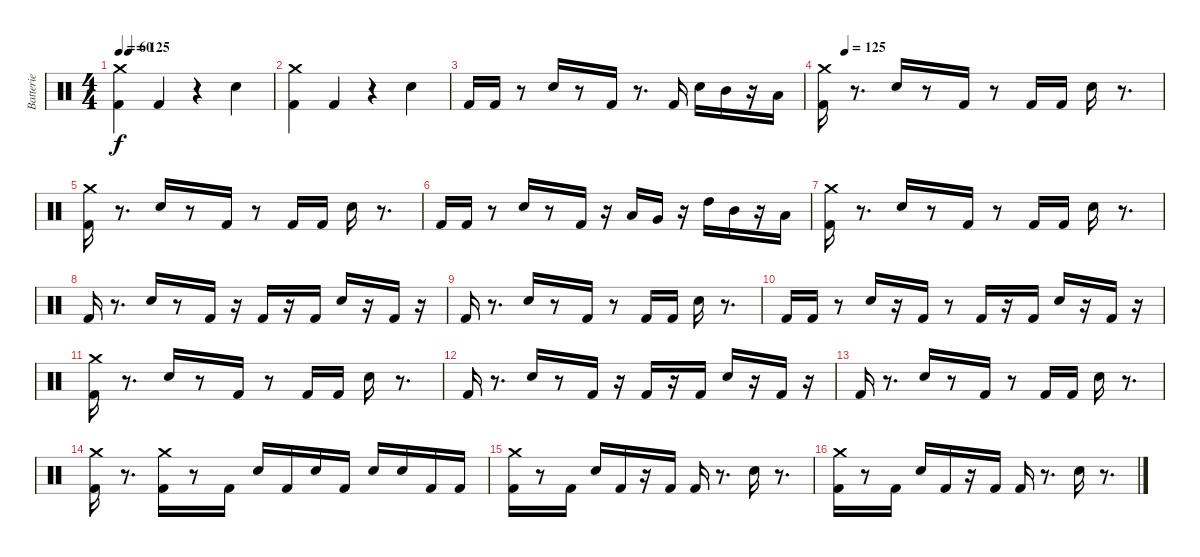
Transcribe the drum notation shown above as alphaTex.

\track ("Batterie" "Batterie") {instrument percussion}
\staff {score}
\articulation defaults
\ts (4 4)
\tempo 60
\tempo (125 0.0625)
\tempo 60
\clef neutral
\ks c
("Crash medium (hit)" "Kick (hit) 2").4{dy f} "Kick (hit) 2".4 r.4 "Snare (hit) 2".4 |
("Crash medium (hit)" "Kick (hit) 2").4 "Kick (hit) 2".4 r.4 "Snare (hit) 2".4 |
"Kick (hit) 2".16 "Kick (hit) 2".16 r.8 "Snare (hit) 2".16 r.8 "Kick (hit) 2".16 r.8{d} "Kick (hit) 2".16 "Snare (hit) 2".16 "Mid Tom (hit)".16 r.16 "Low Tom (hit)".16 |
\tempo (125 0.0625)
("Crash medium (hit)" "Kick (hit) 2").16 r.8{d} "Snare (hit) 2".16 r.8 "Kick (hit) 2".16 r.8 "Kick (hit) 2".16 "Kick (hit) 2".16 "Snare (hit) 2".16 r.8{d} |
("Crash medium (hit)" "Kick (hit) 2").16 r.8{d} "Snare (hit) 2".16 r.8 "Kick (hit) 2".16 r.8 "Kick (hit) 2".16 "Kick (hit) 2".16 "Snare (hit) 2".16 r.8{d} |
"Kick (hit) 2".16 "Kick (hit) 2".16 r.8 "Snare (hit) 2".16 r.8 "Kick (hit) 2".16 r.16 "Low Tom (hit)".16 "Very Low Tom (hit)".16 r.16 "High Tom (hit)".16 "Mid Tom (hit)".16 r.16 "Low Tom (hit)".16 |
("Crash medium (hit)" "Kick (hit) 2").16 r.8{d} "Snare (hit) 2".16 r.8 "Kick (hit) 2".16 r.8 "Kick (hit) 2".16 "Kick (hit) 2".16 "Snare (hit) 2".16 r.8{d} |
"Kick (hit) 2".16 r.8{d} "Snare (hit) 2".16 r.8 "Kick (hit) 2".16 r.16 "Kick (hit) 2".16 r.16 "Kick (hit) 2".16 "Snare (hit) 2".16 r.16 "Kick (hit) 2".16 r.16 |
"Kick (hit) 2".16 r.8{d} "Snare (hit) 2".16 r.8 "Kick (hit) 2".16 r.8 "Kick (hit) 2".16 "Kick (hit) 2".16 "Snare (hit) 2".16 r.8{d} |
"Kick (hit) 2".16 "Kick (hit) 2".16 r.8 "Snare (hit) 2".16 r.16 "Kick (hit) 2".16 r.8 "Kick (hit) 2".16 r.16 "Kick (hit) 2".16 "Snare (hit) 2".16 r.16 "Kick (hit) 2".16 r.16 |
("Crash medium (hit)" "Kick (hit) 2").16 r.8{d} "Snare (hit) 2".16 r.8 "Kick (hit) 2".16 r.8 "Kick (hit) 2".16 "Kick (hit) 2".16 "Snare (hit) 2".16 r.8{d} |
"Kick (hit) 2".16 r.8{d} "Snare (hit) 2".16 r.8 "Kick (hit) 2".16 r.16 "Kick (hit) 2".16 r.16 "Kick (hit) 2".16 "Snare (hit) 2".16 r.16 "Kick (hit) 2".16 r.16 |
"Kick (hit) 2".16 r.8{d} "Snare (hit) 2".16 r.8 "Kick (hit) 2".16 r.8 "Kick (hit) 2".16 "Kick (hit) 2".16 "Snare (hit) 2".16 r.8{d} |
("Crash medium (hit)" "Kick (hit) 2").16 r.8{d} ("Crash medium (hit)" "Kick (hit) 2").16 r.8 "Kick (hit) 2".16 "Snare (hit) 2".16 "Kick (hit) 2".16 "Snare (hit) 2".16 "Kick (hit) 2".16 "Snare (hit) 2".16 "Snare (hit) 2".16 "Kick (hit) 2".16 "Kick (hit) 2".16 |
("Kick (hit) 2" "Crash medium (hit)").16 r.8 "Kick (hit) 2".16 "Snare (hit) 2".16 "Kick (hit) 2".16 r.16 "Kick (hit) 2".16 "Kick (hit) 2".16 r.8{d} "Snare (hit) 2".16 r.8{d} |
("Kick (hit) 2" "Crash medium (hit)").16 r.8 "Kick (hit) 2".16 "Snare (hit) 2".16 "Kick (hit) 2".16 r.16 "Kick (hit) 2".16 "Kick (hit) 2".16 r.8{d} "Snare (hit) 2".16 r.8{d}
